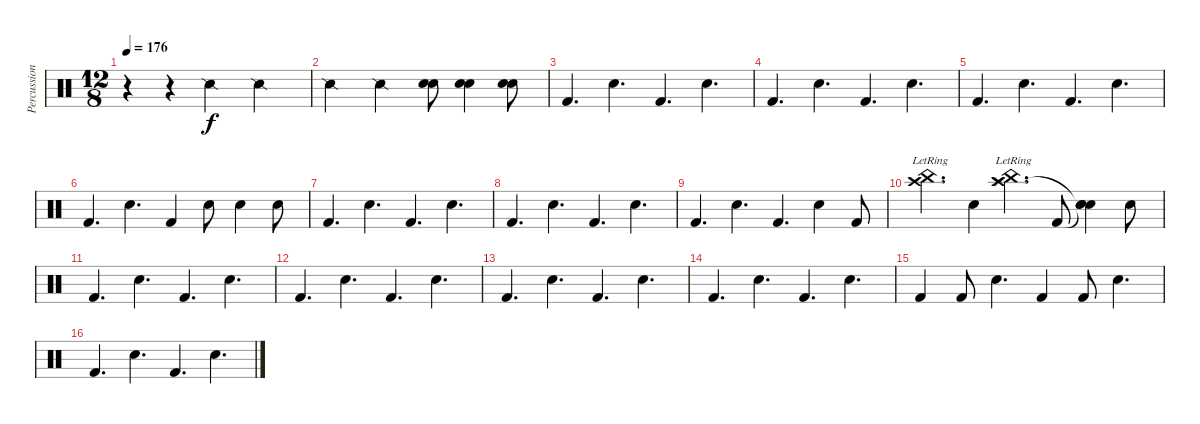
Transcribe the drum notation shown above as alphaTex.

\track ("Percussion" "Percussion") {instrument percussion}
\staff {score}
\articulation defaults
\ts (12 8)
\tempo 176
\clef neutral
\ks c
r.4{dy f} r.4 "Snare (side stick) 2".2 "Snare (side stick) 2".2 |
"Snare (side stick) 2".2 "Snare (side stick) 2".2 ("Electric Snare (hit)" "Snare (hit) 2").8 ("Electric Snare (hit)" "Snare (hit) 2").4 ("Electric Snare (hit)" "Snare (hit) 2").8 |
"Kick (hit) 2".4{d} "Snare (hit) 2".4{d} "Kick (hit) 2".4{d} "Snare (hit) 2".4{d} |
"Kick (hit) 2".4{d} "Snare (hit) 2".4{d} "Kick (hit) 2".4{d} "Snare (hit) 2".4{d} |
"Kick (hit) 2".4{d} "Snare (hit) 2".4{d} "Kick (hit) 2".4{d} "Snare (hit) 2".4{d} |
"Kick (hit) 2".4{d} "Snare (hit) 2".4{d} "Kick (hit) 2".4 "Snare (hit) 2".8 "Snare (hit) 2".4 "Snare (hit) 2".8 |
"Kick (hit) 2".4{d} "Snare (hit) 2".4{d} "Kick (hit) 2".4{d} "Snare (hit) 2".4{d} |
"Kick (hit) 2".4{d} "Snare (hit) 2".4{d} "Kick (hit) 2".4{d} "Snare (hit) 2".4{d} |
"Kick (hit) 2".4{d} "Snare (hit) 2".4{d} "Kick (hit) 2".4{d} "Snare (hit) 2".4 "Kick (hit) 2".8 |
("China (hit)"{lr} "Crash high (hit)"{lr}).4{d} "Snare (hit) 2".4 ("China (hit)"{lr} "Crash high (hit)"{lr} "Splash (hit)"{lr}).4{d} "Kick (hit) 2".8 ("Snare (hit)"{t} "Snare (hit)"{t} "Snare (hit) 2").4 "Snare (hit) 2".8 |
"Kick (hit) 2".4{d} "Snare (hit) 2".4{d} "Kick (hit) 2".4{d} "Snare (hit) 2".4{d} |
"Kick (hit) 2".4{d} "Snare (hit) 2".4{d} "Kick (hit) 2".4{d} "Snare (hit) 2".4{d} |
"Kick (hit) 2".4{d} "Snare (hit) 2".4{d} "Kick (hit) 2".4{d} "Snare (hit) 2".4{d} |
"Kick (hit) 2".4{d} "Snare (hit) 2".4{d} "Kick (hit) 2".4{d} "Snare (hit) 2".4{d} |
"Kick (hit) 2".4 "Kick (hit) 2".8 "Snare (hit) 2".4{d} "Kick (hit) 2".4 "Kick (hit) 2".8 "Snare (hit) 2".4{d} |
"Kick (hit) 2".4{d} "Snare (hit) 2".4{d} "Kick (hit) 2".4{d} "Snare (hit) 2".4{d}
